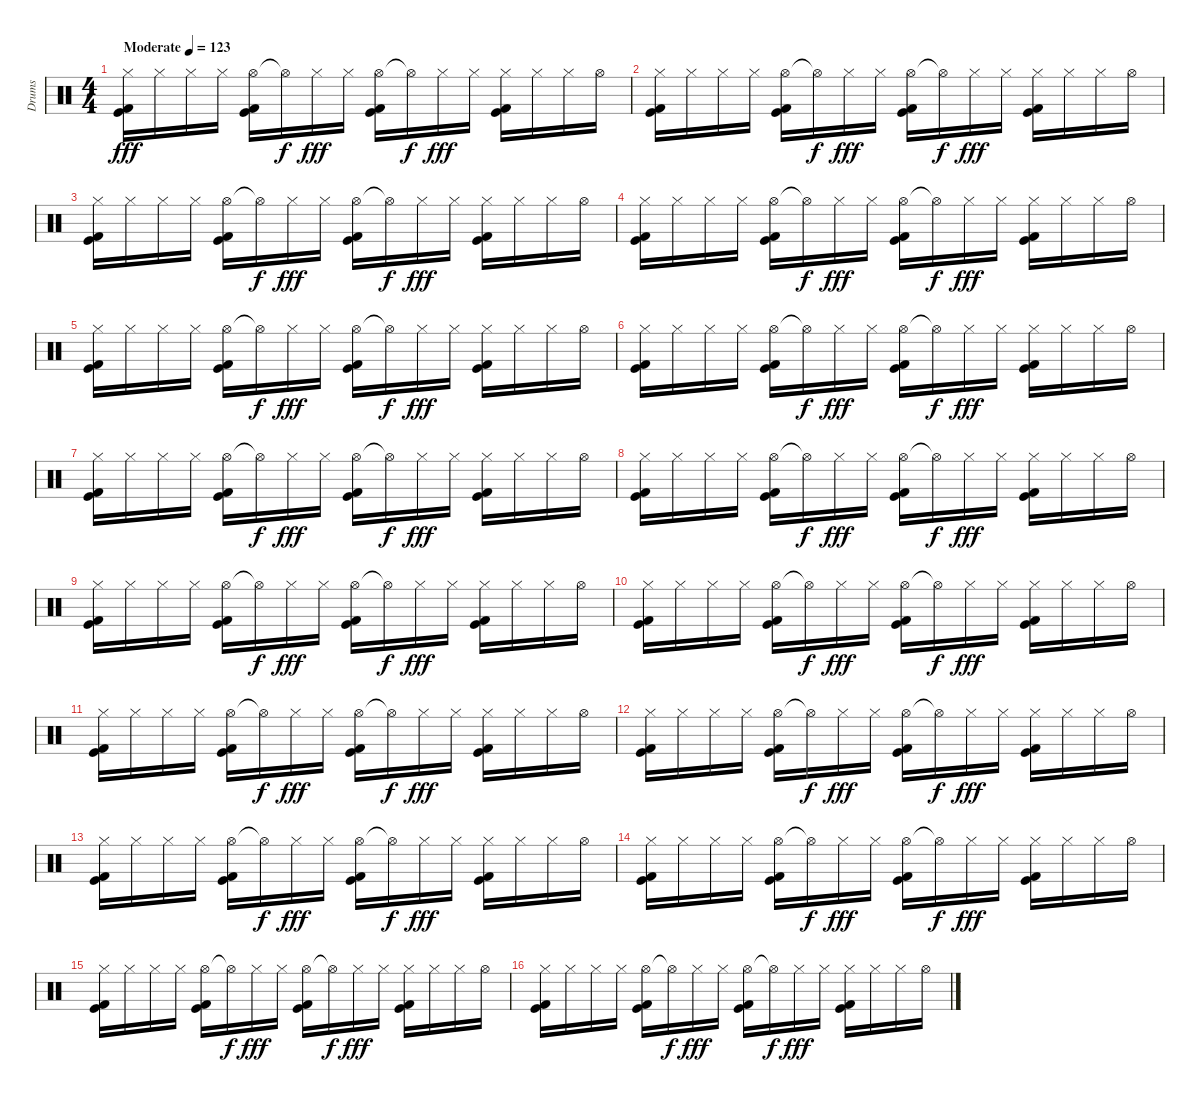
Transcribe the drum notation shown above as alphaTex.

\track ("Drums" "Drums") {instrument percussion}
\staff {score}
\articulation defaults
\ts (4 4)
\tempo (123 "Moderate")
\clef neutral
\ks c
("Hi-Hat (closed)" "Kick (hit) 2" "Kick (hit)").16{dy fff} "Hi-Hat (closed)".16 "Hi-Hat (closed)".16 "Hi-Hat (closed)".16 ("Hi-Hat (open)" "Kick (hit) 2" "Kick (hit)").16 "Hi-Hat (open)"{t}.16{dy f} "Hi-Hat (closed)".16{dy fff} "Hi-Hat (closed)".16 ("Hi-Hat (open)" "Kick (hit) 2" "Kick (hit)").16 "Hi-Hat (open)"{t}.16{dy f} "Hi-Hat (closed)".16{dy fff} "Hi-Hat (closed)".16 ("Hi-Hat (closed)" "Kick (hit) 2" "Kick (hit)").16 "Hi-Hat (closed)".16 "Hi-Hat (closed)".16 "Hi-Hat (open)".16 |
("Hi-Hat (closed)" "Kick (hit) 2" "Kick (hit)").16 "Hi-Hat (closed)".16 "Hi-Hat (closed)".16 "Hi-Hat (closed)".16 ("Hi-Hat (open)" "Kick (hit) 2" "Kick (hit)").16 "Hi-Hat (open)"{t}.16{dy f} "Hi-Hat (closed)".16{dy fff} "Hi-Hat (closed)".16 ("Hi-Hat (open)" "Kick (hit) 2" "Kick (hit)").16 "Hi-Hat (open)"{t}.16{dy f} "Hi-Hat (closed)".16{dy fff} "Hi-Hat (closed)".16 ("Hi-Hat (closed)" "Kick (hit) 2" "Kick (hit)").16 "Hi-Hat (closed)".16 "Hi-Hat (closed)".16 "Hi-Hat (open)".16 |
("Hi-Hat (closed)" "Kick (hit) 2" "Kick (hit)").16 "Hi-Hat (closed)".16 "Hi-Hat (closed)".16 "Hi-Hat (closed)".16 ("Hi-Hat (open)" "Kick (hit) 2" "Kick (hit)").16 "Hi-Hat (open)"{t}.16{dy f} "Hi-Hat (closed)".16{dy fff} "Hi-Hat (closed)".16 ("Hi-Hat (open)" "Kick (hit) 2" "Kick (hit)").16 "Hi-Hat (open)"{t}.16{dy f} "Hi-Hat (closed)".16{dy fff} "Hi-Hat (closed)".16 ("Hi-Hat (closed)" "Kick (hit) 2" "Kick (hit)").16 "Hi-Hat (closed)".16 "Hi-Hat (closed)".16 "Hi-Hat (open)".16 |
("Hi-Hat (closed)" "Kick (hit) 2" "Kick (hit)").16 "Hi-Hat (closed)".16 "Hi-Hat (closed)".16 "Hi-Hat (closed)".16 ("Hi-Hat (open)" "Kick (hit) 2" "Kick (hit)").16 "Hi-Hat (open)"{t}.16{dy f} "Hi-Hat (closed)".16{dy fff} "Hi-Hat (closed)".16 ("Hi-Hat (open)" "Kick (hit) 2" "Kick (hit)").16 "Hi-Hat (open)"{t}.16{dy f} "Hi-Hat (closed)".16{dy fff} "Hi-Hat (closed)".16 ("Hi-Hat (closed)" "Kick (hit) 2" "Kick (hit)").16 "Hi-Hat (closed)".16 "Hi-Hat (closed)".16 "Hi-Hat (open)".16 |
("Hi-Hat (closed)" "Kick (hit) 2" "Kick (hit)").16 "Hi-Hat (closed)".16 "Hi-Hat (closed)".16 "Hi-Hat (closed)".16 ("Hi-Hat (open)" "Kick (hit) 2" "Kick (hit)").16 "Hi-Hat (open)"{t}.16{dy f} "Hi-Hat (closed)".16{dy fff} "Hi-Hat (closed)".16 ("Hi-Hat (open)" "Kick (hit) 2" "Kick (hit)").16 "Hi-Hat (open)"{t}.16{dy f} "Hi-Hat (closed)".16{dy fff} "Hi-Hat (closed)".16 ("Hi-Hat (closed)" "Kick (hit) 2" "Kick (hit)").16 "Hi-Hat (closed)".16 "Hi-Hat (closed)".16 "Hi-Hat (open)".16 |
("Hi-Hat (closed)" "Kick (hit) 2" "Kick (hit)").16 "Hi-Hat (closed)".16 "Hi-Hat (closed)".16 "Hi-Hat (closed)".16 ("Hi-Hat (open)" "Kick (hit) 2" "Kick (hit)").16 "Hi-Hat (open)"{t}.16{dy f} "Hi-Hat (closed)".16{dy fff} "Hi-Hat (closed)".16 ("Hi-Hat (open)" "Kick (hit) 2" "Kick (hit)").16 "Hi-Hat (open)"{t}.16{dy f} "Hi-Hat (closed)".16{dy fff} "Hi-Hat (closed)".16 ("Hi-Hat (closed)" "Kick (hit) 2" "Kick (hit)").16 "Hi-Hat (closed)".16 "Hi-Hat (closed)".16 "Hi-Hat (open)".16 |
("Hi-Hat (closed)" "Kick (hit) 2" "Kick (hit)").16 "Hi-Hat (closed)".16 "Hi-Hat (closed)".16 "Hi-Hat (closed)".16 ("Hi-Hat (open)" "Kick (hit) 2" "Kick (hit)").16 "Hi-Hat (open)"{t}.16{dy f} "Hi-Hat (closed)".16{dy fff} "Hi-Hat (closed)".16 ("Hi-Hat (open)" "Kick (hit) 2" "Kick (hit)").16 "Hi-Hat (open)"{t}.16{dy f} "Hi-Hat (closed)".16{dy fff} "Hi-Hat (closed)".16 ("Hi-Hat (closed)" "Kick (hit) 2" "Kick (hit)").16 "Hi-Hat (closed)".16 "Hi-Hat (closed)".16 "Hi-Hat (open)".16 |
("Hi-Hat (closed)" "Kick (hit) 2" "Kick (hit)").16 "Hi-Hat (closed)".16 "Hi-Hat (closed)".16 "Hi-Hat (closed)".16 ("Hi-Hat (open)" "Kick (hit) 2" "Kick (hit)").16 "Hi-Hat (open)"{t}.16{dy f} "Hi-Hat (closed)".16{dy fff} "Hi-Hat (closed)".16 ("Hi-Hat (open)" "Kick (hit) 2" "Kick (hit)").16 "Hi-Hat (open)"{t}.16{dy f} "Hi-Hat (closed)".16{dy fff} "Hi-Hat (closed)".16 ("Hi-Hat (closed)" "Kick (hit) 2" "Kick (hit)").16 "Hi-Hat (closed)".16 "Hi-Hat (closed)".16 "Hi-Hat (open)".16 |
("Hi-Hat (closed)" "Kick (hit) 2" "Kick (hit)").16 "Hi-Hat (closed)".16 "Hi-Hat (closed)".16 "Hi-Hat (closed)".16 ("Hi-Hat (open)" "Kick (hit) 2" "Kick (hit)").16 "Hi-Hat (open)"{t}.16{dy f} "Hi-Hat (closed)".16{dy fff} "Hi-Hat (closed)".16 ("Hi-Hat (open)" "Kick (hit) 2" "Kick (hit)").16 "Hi-Hat (open)"{t}.16{dy f} "Hi-Hat (closed)".16{dy fff} "Hi-Hat (closed)".16 ("Hi-Hat (closed)" "Kick (hit) 2" "Kick (hit)").16 "Hi-Hat (closed)".16 "Hi-Hat (closed)".16 "Hi-Hat (open)".16 |
("Hi-Hat (closed)" "Kick (hit) 2" "Kick (hit)").16 "Hi-Hat (closed)".16 "Hi-Hat (closed)".16 "Hi-Hat (closed)".16 ("Hi-Hat (open)" "Kick (hit) 2" "Kick (hit)").16 "Hi-Hat (open)"{t}.16{dy f} "Hi-Hat (closed)".16{dy fff} "Hi-Hat (closed)".16 ("Hi-Hat (open)" "Kick (hit) 2" "Kick (hit)").16 "Hi-Hat (open)"{t}.16{dy f} "Hi-Hat (closed)".16{dy fff} "Hi-Hat (closed)".16 ("Hi-Hat (closed)" "Kick (hit) 2" "Kick (hit)").16 "Hi-Hat (closed)".16 "Hi-Hat (closed)".16 "Hi-Hat (open)".16 |
("Hi-Hat (closed)" "Kick (hit) 2" "Kick (hit)").16 "Hi-Hat (closed)".16 "Hi-Hat (closed)".16 "Hi-Hat (closed)".16 ("Hi-Hat (open)" "Kick (hit) 2" "Kick (hit)").16 "Hi-Hat (open)"{t}.16{dy f} "Hi-Hat (closed)".16{dy fff} "Hi-Hat (closed)".16 ("Hi-Hat (open)" "Kick (hit) 2" "Kick (hit)").16 "Hi-Hat (open)"{t}.16{dy f} "Hi-Hat (closed)".16{dy fff} "Hi-Hat (closed)".16 ("Hi-Hat (closed)" "Kick (hit) 2" "Kick (hit)").16 "Hi-Hat (closed)".16 "Hi-Hat (closed)".16 "Hi-Hat (open)".16 |
("Hi-Hat (closed)" "Kick (hit) 2" "Kick (hit)").16 "Hi-Hat (closed)".16 "Hi-Hat (closed)".16 "Hi-Hat (closed)".16 ("Hi-Hat (open)" "Kick (hit) 2" "Kick (hit)").16 "Hi-Hat (open)"{t}.16{dy f} "Hi-Hat (closed)".16{dy fff} "Hi-Hat (closed)".16 ("Hi-Hat (open)" "Kick (hit) 2" "Kick (hit)").16 "Hi-Hat (open)"{t}.16{dy f} "Hi-Hat (closed)".16{dy fff} "Hi-Hat (closed)".16 ("Hi-Hat (closed)" "Kick (hit) 2" "Kick (hit)").16 "Hi-Hat (closed)".16 "Hi-Hat (closed)".16 "Hi-Hat (open)".16 |
("Hi-Hat (closed)" "Kick (hit) 2" "Kick (hit)").16 "Hi-Hat (closed)".16 "Hi-Hat (closed)".16 "Hi-Hat (closed)".16 ("Hi-Hat (open)" "Kick (hit) 2" "Kick (hit)").16 "Hi-Hat (open)"{t}.16{dy f} "Hi-Hat (closed)".16{dy fff} "Hi-Hat (closed)".16 ("Hi-Hat (open)" "Kick (hit) 2" "Kick (hit)").16 "Hi-Hat (open)"{t}.16{dy f} "Hi-Hat (closed)".16{dy fff} "Hi-Hat (closed)".16 ("Hi-Hat (closed)" "Kick (hit) 2" "Kick (hit)").16 "Hi-Hat (closed)".16 "Hi-Hat (closed)".16 "Hi-Hat (open)".16 |
("Hi-Hat (closed)" "Kick (hit) 2" "Kick (hit)").16 "Hi-Hat (closed)".16 "Hi-Hat (closed)".16 "Hi-Hat (closed)".16 ("Hi-Hat (open)" "Kick (hit) 2" "Kick (hit)").16 "Hi-Hat (open)"{t}.16{dy f} "Hi-Hat (closed)".16{dy fff} "Hi-Hat (closed)".16 ("Hi-Hat (open)" "Kick (hit) 2" "Kick (hit)").16 "Hi-Hat (open)"{t}.16{dy f} "Hi-Hat (closed)".16{dy fff} "Hi-Hat (closed)".16 ("Hi-Hat (closed)" "Kick (hit) 2" "Kick (hit)").16 "Hi-Hat (closed)".16 "Hi-Hat (closed)".16 "Hi-Hat (open)".16 |
("Hi-Hat (closed)" "Kick (hit) 2" "Kick (hit)").16 "Hi-Hat (closed)".16 "Hi-Hat (closed)".16 "Hi-Hat (closed)".16 ("Hi-Hat (open)" "Kick (hit) 2" "Kick (hit)").16 "Hi-Hat (open)"{t}.16{dy f} "Hi-Hat (closed)".16{dy fff} "Hi-Hat (closed)".16 ("Hi-Hat (open)" "Kick (hit) 2" "Kick (hit)").16 "Hi-Hat (open)"{t}.16{dy f} "Hi-Hat (closed)".16{dy fff} "Hi-Hat (closed)".16 ("Hi-Hat (closed)" "Kick (hit) 2" "Kick (hit)").16 "Hi-Hat (closed)".16 "Hi-Hat (closed)".16 "Hi-Hat (open)".16 |
("Hi-Hat (closed)" "Kick (hit) 2" "Kick (hit)").16 "Hi-Hat (closed)".16 "Hi-Hat (closed)".16 "Hi-Hat (closed)".16 ("Hi-Hat (open)" "Kick (hit) 2" "Kick (hit)").16 "Hi-Hat (open)"{t}.16{dy f} "Hi-Hat (closed)".16{dy fff} "Hi-Hat (closed)".16 ("Hi-Hat (open)" "Kick (hit) 2" "Kick (hit)").16 "Hi-Hat (open)"{t}.16{dy f} "Hi-Hat (closed)".16{dy fff} "Hi-Hat (closed)".16 ("Hi-Hat (closed)" "Kick (hit) 2" "Kick (hit)").16 "Hi-Hat (closed)".16 "Hi-Hat (closed)".16 "Hi-Hat (open)".16
